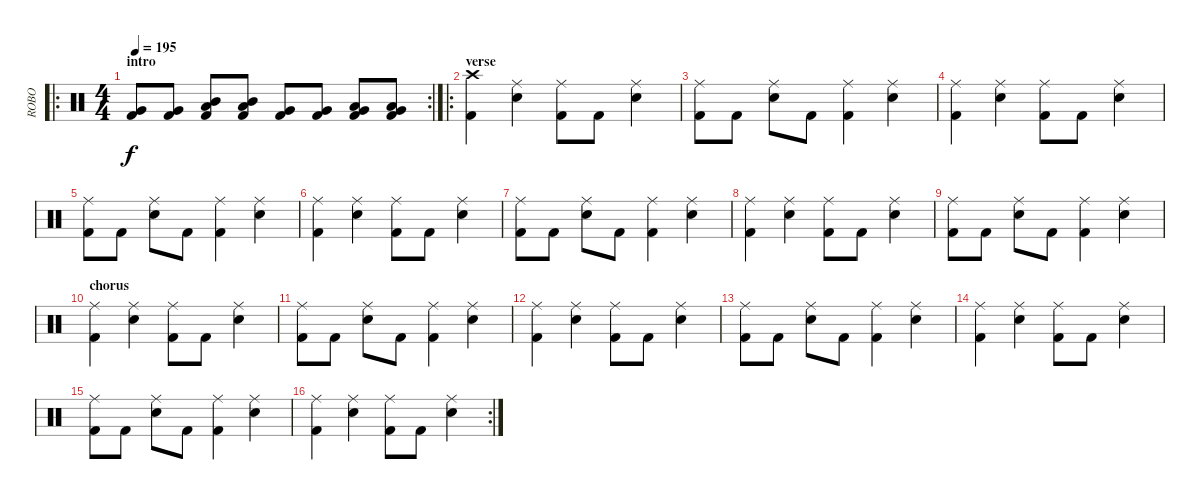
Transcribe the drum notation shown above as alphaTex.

\track ("ROBO" "ROBO") {instrument percussion}
\staff {score}
\articulation defaults
\ro
\rc 2
\ts (4 4)
\section ("" "intro")
\tempo 195
\clef neutral
\ks c
("Kick (hit) 2" "Very Low Tom (hit)").8{dy f} ("Kick (hit) 2" "Very Low Tom (hit)").8 ("Mid Tom (hit)" "Kick (hit) 2" "Low Tom (hit)").8 ("Mid Tom (hit)" "Kick (hit) 2" "Low Tom (hit)").8 ("Kick (hit) 2" "Very Low Tom (hit)").8 ("Kick (hit) 2" "Very Low Tom (hit)").8 ("Low Tom (hit)" "Kick (hit) 2" "Very Low Tom (hit)").8 ("Low Tom (hit)" "Kick (hit) 2" "Very Low Tom (hit)").8 |
\ro
\section ("" "verse")
("Crash high (hit)" "Kick (hit) 2").4 ("Ride (middle)" "Electric Snare (hit)").4 ("Ride (middle)" "Kick (hit) 2").8 "Kick (hit) 2".8 ("Ride (middle)" "Electric Snare (hit)").4 |
("Ride (middle)" "Kick (hit) 2").8 "Kick (hit) 2".8 ("Ride (middle)" "Electric Snare (hit)").8 "Kick (hit) 2".8 ("Ride (middle)" "Kick (hit) 2").4 ("Ride (middle)" "Electric Snare (hit)").4 |
("Ride (middle)" "Kick (hit) 2").4 ("Ride (middle)" "Electric Snare (hit)").4 ("Ride (middle)" "Kick (hit) 2").8 "Kick (hit) 2".8 ("Ride (middle)" "Electric Snare (hit)").4 |
("Ride (middle)" "Kick (hit) 2").8 "Kick (hit) 2".8 ("Ride (middle)" "Electric Snare (hit)").8 "Kick (hit) 2".8 ("Ride (middle)" "Kick (hit) 2").4 ("Ride (middle)" "Electric Snare (hit)").4 |
("Ride (middle)" "Kick (hit) 2").4 ("Ride (middle)" "Electric Snare (hit)").4 ("Ride (middle)" "Kick (hit) 2").8 "Kick (hit) 2".8 ("Ride (middle)" "Electric Snare (hit)").4 |
("Ride (middle)" "Kick (hit) 2").8 "Kick (hit) 2".8 ("Ride (middle)" "Electric Snare (hit)").8 "Kick (hit) 2".8 ("Ride (middle)" "Kick (hit) 2").4 ("Ride (middle)" "Electric Snare (hit)").4 |
("Ride (middle)" "Kick (hit) 2").4 ("Ride (middle)" "Electric Snare (hit)").4 ("Ride (middle)" "Kick (hit) 2").8 "Kick (hit) 2".8 ("Ride (middle)" "Electric Snare (hit)").4 |
("Ride (middle)" "Kick (hit) 2").8 "Kick (hit) 2".8 ("Ride (middle)" "Electric Snare (hit)").8 "Kick (hit) 2".8 ("Ride (middle)" "Kick (hit) 2").4 ("Ride (middle)" "Electric Snare (hit)").4 |
\section ("" "chorus")
("Ride (middle)" "Kick (hit) 2").4 ("Ride (middle)" "Electric Snare (hit)").4 ("Ride (middle)" "Kick (hit) 2").8 "Kick (hit) 2".8 ("Ride (middle)" "Electric Snare (hit)").4 |
("Ride (middle)" "Kick (hit) 2").8 "Kick (hit) 2".8 ("Ride (middle)" "Electric Snare (hit)").8 "Kick (hit) 2".8 ("Ride (middle)" "Kick (hit) 2").4 ("Ride (middle)" "Electric Snare (hit)").4 |
("Ride (middle)" "Kick (hit) 2").4 ("Ride (middle)" "Electric Snare (hit)").4 ("Ride (middle)" "Kick (hit) 2").8 "Kick (hit) 2".8 ("Ride (middle)" "Electric Snare (hit)").4 |
("Ride (middle)" "Kick (hit) 2").8 "Kick (hit) 2".8 ("Ride (middle)" "Electric Snare (hit)").8 "Kick (hit) 2".8 ("Ride (middle)" "Kick (hit) 2").4 ("Ride (middle)" "Electric Snare (hit)").4 |
("Ride (middle)" "Kick (hit) 2").4 ("Ride (middle)" "Electric Snare (hit)").4 ("Ride (middle)" "Kick (hit) 2").8 "Kick (hit) 2".8 ("Ride (middle)" "Electric Snare (hit)").4 |
("Ride (middle)" "Kick (hit) 2").8 "Kick (hit) 2".8 ("Ride (middle)" "Electric Snare (hit)").8 "Kick (hit) 2".8 ("Ride (middle)" "Kick (hit) 2").4 ("Ride (middle)" "Electric Snare (hit)").4 |
\rc 2
("Ride (middle)" "Kick (hit) 2").4 ("Ride (middle)" "Electric Snare (hit)").4 ("Ride (middle)" "Kick (hit) 2").8 "Kick (hit) 2".8 ("Ride (middle)" "Electric Snare (hit)").4
